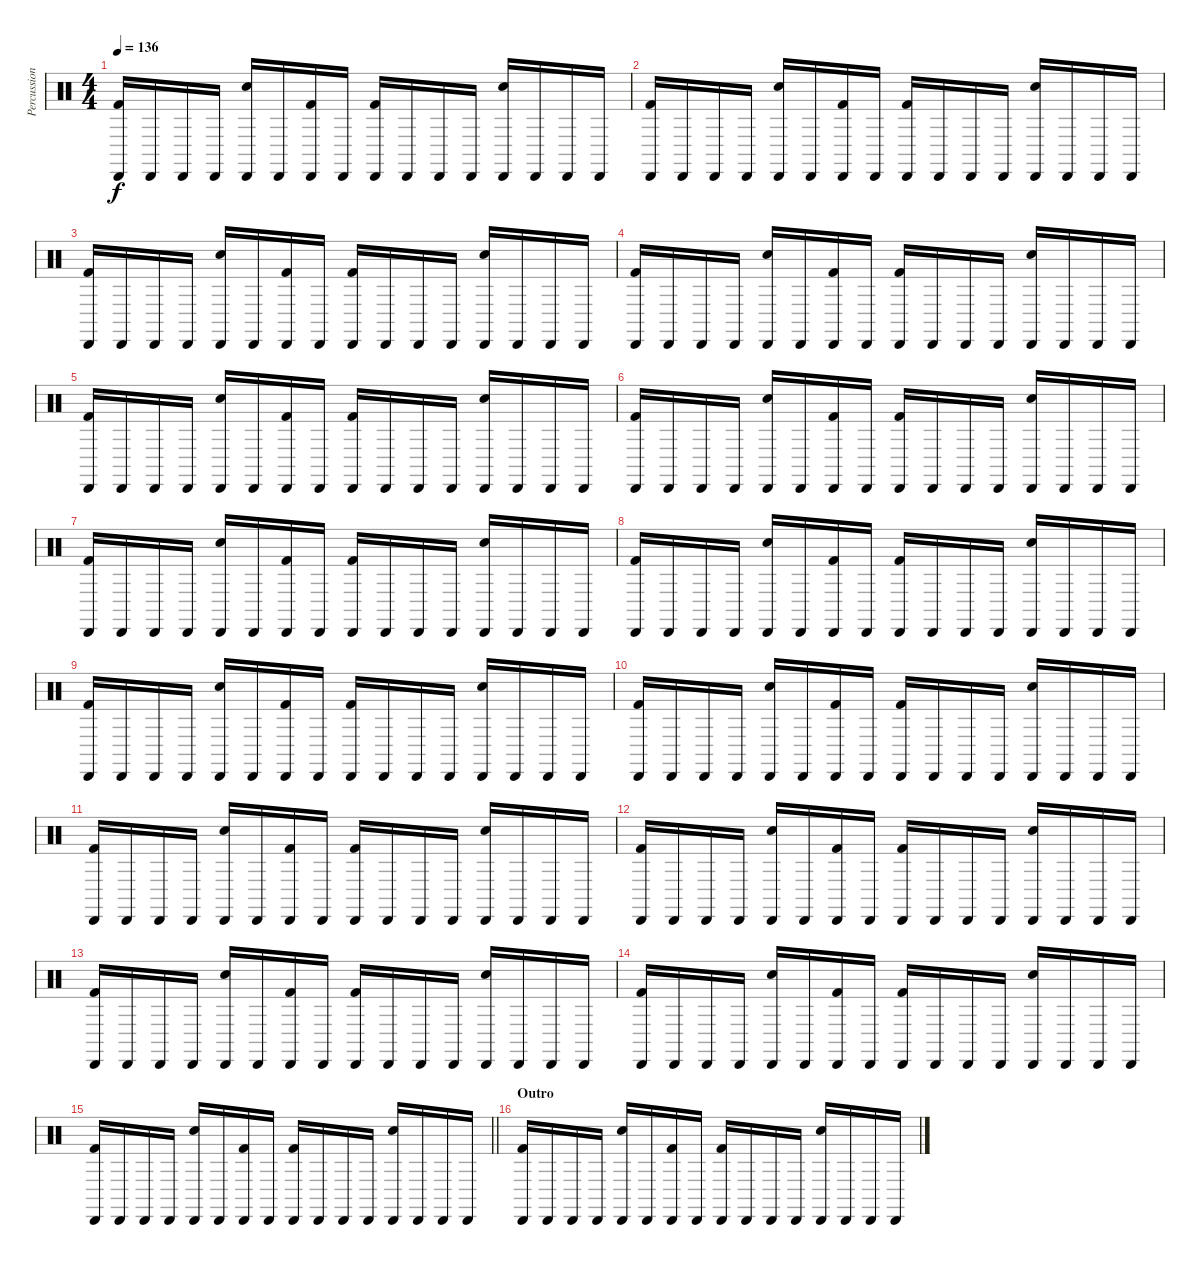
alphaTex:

\track ("Percussion" "Percussion") {instrument percussion}
\staff {score}
\articulation defaults
\ts (4 4)
\tempo 136
\clef neutral
\ks c
("Cabasa (hit)" "Kick (hit) 2").16{dy f} "Cabasa (hit)".16 "Cabasa (hit)".16 "Cabasa (hit)".16 ("Cabasa (hit)" "Snare (hit) 2").16 "Cabasa (hit)".16 ("Cabasa (hit)" "Kick (hit) 2").16 "Cabasa (hit)".16 ("Cabasa (hit)" "Kick (hit) 2").16 "Cabasa (hit)".16 "Cabasa (hit)".16 "Cabasa (hit)".16 ("Cabasa (hit)" "Snare (hit) 2").16 "Cabasa (hit)".16 "Cabasa (hit)".16 "Cabasa (hit)".16 |
("Cabasa (hit)" "Kick (hit) 2").16 "Cabasa (hit)".16 "Cabasa (hit)".16 "Cabasa (hit)".16 ("Cabasa (hit)" "Snare (hit) 2").16 "Cabasa (hit)".16 ("Cabasa (hit)" "Kick (hit) 2").16 "Cabasa (hit)".16 ("Cabasa (hit)" "Kick (hit) 2").16 "Cabasa (hit)".16 "Cabasa (hit)".16 "Cabasa (hit)".16 ("Cabasa (hit)" "Snare (hit) 2").16 "Cabasa (hit)".16 "Cabasa (hit)".16 "Cabasa (hit)".16 |
("Cabasa (hit)" "Kick (hit) 2").16 "Cabasa (hit)".16 "Cabasa (hit)".16 "Cabasa (hit)".16 ("Cabasa (hit)" "Snare (hit) 2").16 "Cabasa (hit)".16 ("Cabasa (hit)" "Kick (hit) 2").16 "Cabasa (hit)".16 ("Cabasa (hit)" "Kick (hit) 2").16 "Cabasa (hit)".16 "Cabasa (hit)".16 "Cabasa (hit)".16 ("Cabasa (hit)" "Snare (hit) 2").16 "Cabasa (hit)".16 "Cabasa (hit)".16 "Cabasa (hit)".16 |
("Cabasa (hit)" "Kick (hit) 2").16 "Cabasa (hit)".16 "Cabasa (hit)".16 "Cabasa (hit)".16 ("Cabasa (hit)" "Snare (hit) 2").16 "Cabasa (hit)".16 ("Cabasa (hit)" "Kick (hit) 2").16 "Cabasa (hit)".16 ("Cabasa (hit)" "Kick (hit) 2").16 "Cabasa (hit)".16 "Cabasa (hit)".16 "Cabasa (hit)".16 ("Cabasa (hit)" "Snare (hit) 2").16 "Cabasa (hit)".16 "Cabasa (hit)".16 "Cabasa (hit)".16 |
("Cabasa (hit)" "Kick (hit) 2").16 "Cabasa (hit)".16 "Cabasa (hit)".16 "Cabasa (hit)".16 ("Cabasa (hit)" "Snare (hit) 2").16 "Cabasa (hit)".16 ("Cabasa (hit)" "Kick (hit) 2").16 "Cabasa (hit)".16 ("Cabasa (hit)" "Kick (hit) 2").16 "Cabasa (hit)".16 "Cabasa (hit)".16 "Cabasa (hit)".16 ("Cabasa (hit)" "Snare (hit) 2").16 "Cabasa (hit)".16 "Cabasa (hit)".16 "Cabasa (hit)".16 |
("Cabasa (hit)" "Kick (hit) 2").16 "Cabasa (hit)".16 "Cabasa (hit)".16 "Cabasa (hit)".16 ("Cabasa (hit)" "Snare (hit) 2").16 "Cabasa (hit)".16 ("Cabasa (hit)" "Kick (hit) 2").16 "Cabasa (hit)".16 ("Cabasa (hit)" "Kick (hit) 2").16 "Cabasa (hit)".16 "Cabasa (hit)".16 "Cabasa (hit)".16 ("Cabasa (hit)" "Snare (hit) 2").16 "Cabasa (hit)".16 "Cabasa (hit)".16 "Cabasa (hit)".16 |
("Cabasa (hit)" "Kick (hit) 2").16 "Cabasa (hit)".16 "Cabasa (hit)".16 "Cabasa (hit)".16 ("Cabasa (hit)" "Snare (hit) 2").16 "Cabasa (hit)".16 ("Cabasa (hit)" "Kick (hit) 2").16 "Cabasa (hit)".16 ("Cabasa (hit)" "Kick (hit) 2").16 "Cabasa (hit)".16 "Cabasa (hit)".16 "Cabasa (hit)".16 ("Cabasa (hit)" "Snare (hit) 2").16 "Cabasa (hit)".16 "Cabasa (hit)".16 "Cabasa (hit)".16 |
("Cabasa (hit)" "Kick (hit) 2").16 "Cabasa (hit)".16 "Cabasa (hit)".16 "Cabasa (hit)".16 ("Cabasa (hit)" "Snare (hit) 2").16 "Cabasa (hit)".16 ("Cabasa (hit)" "Kick (hit) 2").16 "Cabasa (hit)".16 ("Cabasa (hit)" "Kick (hit) 2").16 "Cabasa (hit)".16 "Cabasa (hit)".16 "Cabasa (hit)".16 ("Cabasa (hit)" "Snare (hit) 2").16 "Cabasa (hit)".16 "Cabasa (hit)".16 "Cabasa (hit)".16 |
("Cabasa (hit)" "Kick (hit) 2").16 "Cabasa (hit)".16 "Cabasa (hit)".16 "Cabasa (hit)".16 ("Cabasa (hit)" "Snare (hit) 2").16 "Cabasa (hit)".16 ("Cabasa (hit)" "Kick (hit) 2").16 "Cabasa (hit)".16 ("Cabasa (hit)" "Kick (hit) 2").16 "Cabasa (hit)".16 "Cabasa (hit)".16 "Cabasa (hit)".16 ("Cabasa (hit)" "Snare (hit) 2").16 "Cabasa (hit)".16 "Cabasa (hit)".16 "Cabasa (hit)".16 |
("Cabasa (hit)" "Kick (hit) 2").16 "Cabasa (hit)".16 "Cabasa (hit)".16 "Cabasa (hit)".16 ("Cabasa (hit)" "Snare (hit) 2").16 "Cabasa (hit)".16 ("Cabasa (hit)" "Kick (hit) 2").16 "Cabasa (hit)".16 ("Cabasa (hit)" "Kick (hit) 2").16 "Cabasa (hit)".16 "Cabasa (hit)".16 "Cabasa (hit)".16 ("Cabasa (hit)" "Snare (hit) 2").16 "Cabasa (hit)".16 "Cabasa (hit)".16 "Cabasa (hit)".16 |
("Cabasa (hit)" "Kick (hit) 2").16 "Cabasa (hit)".16 "Cabasa (hit)".16 "Cabasa (hit)".16 ("Cabasa (hit)" "Snare (hit) 2").16 "Cabasa (hit)".16 ("Cabasa (hit)" "Kick (hit) 2").16 "Cabasa (hit)".16 ("Cabasa (hit)" "Kick (hit) 2").16 "Cabasa (hit)".16 "Cabasa (hit)".16 "Cabasa (hit)".16 ("Cabasa (hit)" "Snare (hit) 2").16 "Cabasa (hit)".16 "Cabasa (hit)".16 "Cabasa (hit)".16 |
("Cabasa (hit)" "Kick (hit) 2").16 "Cabasa (hit)".16 "Cabasa (hit)".16 "Cabasa (hit)".16 ("Cabasa (hit)" "Snare (hit) 2").16 "Cabasa (hit)".16 ("Cabasa (hit)" "Kick (hit) 2").16 "Cabasa (hit)".16 ("Cabasa (hit)" "Kick (hit) 2").16 "Cabasa (hit)".16 "Cabasa (hit)".16 "Cabasa (hit)".16 ("Cabasa (hit)" "Snare (hit) 2").16 "Cabasa (hit)".16 "Cabasa (hit)".16 "Cabasa (hit)".16 |
("Cabasa (hit)" "Kick (hit) 2").16 "Cabasa (hit)".16 "Cabasa (hit)".16 "Cabasa (hit)".16 ("Cabasa (hit)" "Snare (hit) 2").16 "Cabasa (hit)".16 ("Cabasa (hit)" "Kick (hit) 2").16 "Cabasa (hit)".16 ("Cabasa (hit)" "Kick (hit) 2").16 "Cabasa (hit)".16 "Cabasa (hit)".16 "Cabasa (hit)".16 ("Cabasa (hit)" "Snare (hit) 2").16 "Cabasa (hit)".16 "Cabasa (hit)".16 "Cabasa (hit)".16 |
("Cabasa (hit)" "Kick (hit) 2").16 "Cabasa (hit)".16 "Cabasa (hit)".16 "Cabasa (hit)".16 ("Cabasa (hit)" "Snare (hit) 2").16 "Cabasa (hit)".16 ("Cabasa (hit)" "Kick (hit) 2").16 "Cabasa (hit)".16 ("Cabasa (hit)" "Kick (hit) 2").16 "Cabasa (hit)".16 "Cabasa (hit)".16 "Cabasa (hit)".16 ("Cabasa (hit)" "Snare (hit) 2").16 "Cabasa (hit)".16 "Cabasa (hit)".16 "Cabasa (hit)".16 |
\barLineRight lightlight
("Cabasa (hit)" "Kick (hit) 2").16 "Cabasa (hit)".16 "Cabasa (hit)".16 "Cabasa (hit)".16 ("Cabasa (hit)" "Snare (hit) 2").16 "Cabasa (hit)".16 ("Cabasa (hit)" "Kick (hit) 2").16 "Cabasa (hit)".16 ("Cabasa (hit)" "Kick (hit) 2").16 "Cabasa (hit)".16 "Cabasa (hit)".16 "Cabasa (hit)".16 ("Cabasa (hit)" "Snare (hit) 2").16 "Cabasa (hit)".16 "Cabasa (hit)".16 "Cabasa (hit)".16 |
\section ("" "Outro")
("Cabasa (hit)" "Kick (hit) 2").16 "Cabasa (hit)".16 "Cabasa (hit)".16 "Cabasa (hit)".16 ("Cabasa (hit)" "Snare (hit) 2").16 "Cabasa (hit)".16 ("Cabasa (hit)" "Kick (hit) 2").16 "Cabasa (hit)".16 ("Cabasa (hit)" "Kick (hit) 2").16 "Cabasa (hit)".16 "Cabasa (hit)".16 "Cabasa (hit)".16 ("Cabasa (hit)" "Snare (hit) 2").16 "Cabasa (hit)".16 "Cabasa (hit)".16 "Cabasa (hit)".16
